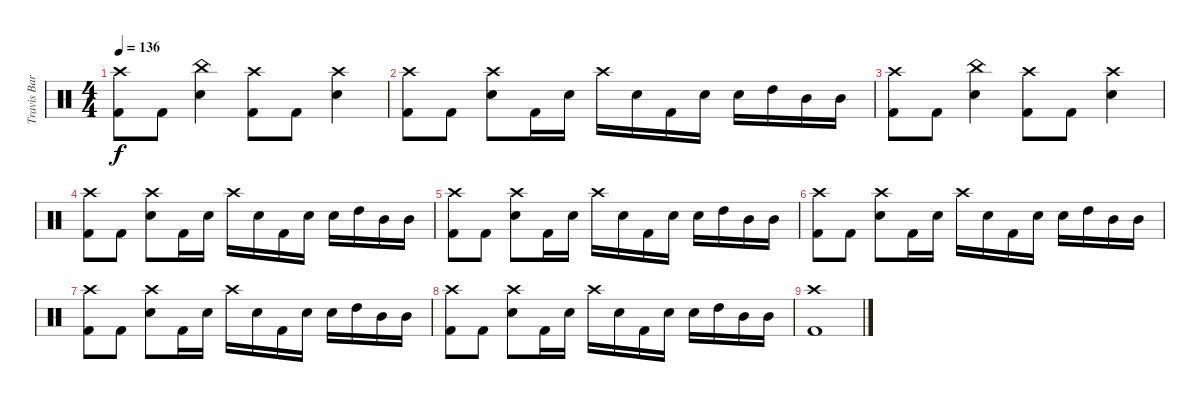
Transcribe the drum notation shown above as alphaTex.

\track ("Travis Barker - Drums" "Travis Bar") {instrument percussion}
\staff {score}
\articulation defaults
\ts (4 4)
\tempo 136
\clef neutral
\ks c
("Crash high (hit)" "Kick (hit) 2").8{dy f} "Kick (hit) 2".8 ("China (hit)" "Snare (hit) 2").4 ("Crash high (hit)" "Kick (hit) 2").8 "Kick (hit) 2".8 ("Crash high (hit)" "Snare (hit) 2").4 |
("Crash high (hit)" "Kick (hit) 2").8 "Kick (hit) 2".8 ("Crash high (hit)" "Snare (hit) 2").8 "Kick (hit) 2".16 "Snare (hit) 2".16 "Crash high (hit)".16 "Snare (hit) 2".16 "Kick (hit) 2".16 "Snare (hit) 2".16 "Snare (hit) 2".16 "High Tom (hit)".16 "Mid Tom (hit)".16 "Mid Tom (hit)".16 |
("Crash high (hit)" "Kick (hit) 2").8 "Kick (hit) 2".8 ("China (hit)" "Snare (hit) 2").4 ("Crash high (hit)" "Kick (hit) 2").8 "Kick (hit) 2".8 ("Crash high (hit)" "Snare (hit) 2").4 |
("Crash high (hit)" "Kick (hit) 2").8 "Kick (hit) 2".8 ("Crash high (hit)" "Snare (hit) 2").8 "Kick (hit) 2".16 "Snare (hit) 2".16 "Crash high (hit)".16 "Snare (hit) 2".16 "Kick (hit) 2".16 "Snare (hit) 2".16 "Snare (hit) 2".16 "High Tom (hit)".16 "Mid Tom (hit)".16 "Mid Tom (hit)".16 |
("Crash high (hit)" "Kick (hit) 2").8 "Kick (hit) 2".8 ("Crash high (hit)" "Snare (hit) 2").8 "Kick (hit) 2".16 "Snare (hit) 2".16 "Crash high (hit)".16 "Snare (hit) 2".16 "Kick (hit) 2".16 "Snare (hit) 2".16 "Snare (hit) 2".16 "High Tom (hit)".16 "Mid Tom (hit)".16 "Mid Tom (hit)".16 |
("Crash high (hit)" "Kick (hit) 2").8 "Kick (hit) 2".8 ("Crash high (hit)" "Snare (hit) 2").8 "Kick (hit) 2".16 "Snare (hit) 2".16 "Crash high (hit)".16 "Snare (hit) 2".16 "Kick (hit) 2".16 "Snare (hit) 2".16 "Snare (hit) 2".16 "High Tom (hit)".16 "Mid Tom (hit)".16 "Mid Tom (hit)".16 |
("Crash high (hit)" "Kick (hit) 2").8 "Kick (hit) 2".8 ("Crash high (hit)" "Snare (hit) 2").8 "Kick (hit) 2".16 "Snare (hit) 2".16 "Crash high (hit)".16 "Snare (hit) 2".16 "Kick (hit) 2".16 "Snare (hit) 2".16 "Snare (hit) 2".16 "High Tom (hit)".16 "Mid Tom (hit)".16 "Mid Tom (hit)".16 |
("Crash high (hit)" "Kick (hit) 2").8 "Kick (hit) 2".8 ("Crash high (hit)" "Snare (hit) 2").8 "Kick (hit) 2".16 "Snare (hit) 2".16 "Crash high (hit)".16 "Snare (hit) 2".16 "Kick (hit) 2".16 "Snare (hit) 2".16 "Snare (hit) 2".16 "High Tom (hit)".16 "Mid Tom (hit)".16 "Mid Tom (hit)".16 |
("Crash high (hit)" "Kick (hit) 2").1
